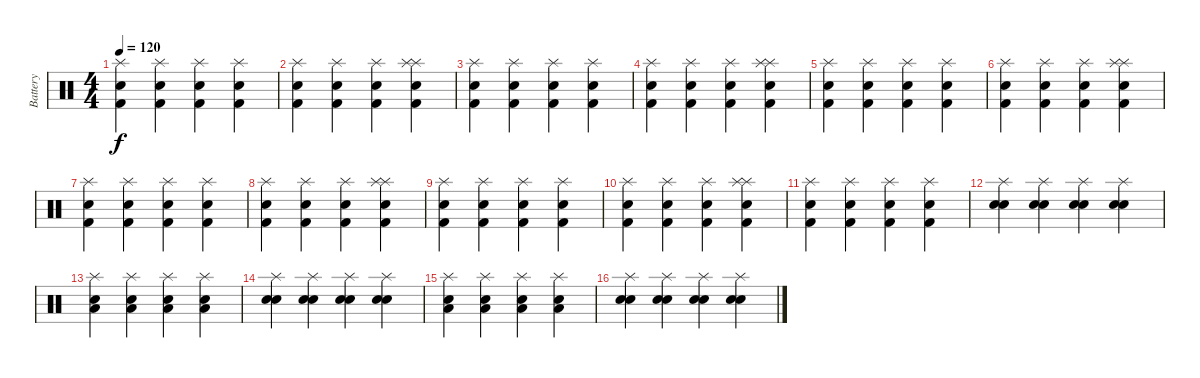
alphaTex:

\track ("Battery" "Battery") {instrument percussion}
\staff {score}
\articulation defaults
\ts (4 4)
\tempo 120
\clef neutral
\ks c
("Snare (hit) 2" "Kick (hit) 2" "Splash (hit)").4{dy f} ("Snare (hit) 2" "Kick (hit) 2" "Splash (hit)").4 ("Snare (hit) 2" "Kick (hit) 2" "Splash (hit)").4 ("Snare (hit) 2" "Kick (hit) 2" "Splash (hit)").4 |
("Kick (hit) 2" "Snare (hit) 2" "Splash (hit)").4 ("Kick (hit) 2" "Snare (hit) 2" "Splash (hit)").4 ("Kick (hit) 2" "Snare (hit) 2" "Splash (hit)").4 ("Kick (hit) 2" "Snare (hit) 2" "Splash (hit)" "Splash (hit)").4 |
("Snare (hit) 2" "Kick (hit) 2" "Splash (hit)").4 ("Snare (hit) 2" "Kick (hit) 2" "Splash (hit)").4 ("Snare (hit) 2" "Kick (hit) 2" "Splash (hit)").4 ("Snare (hit) 2" "Kick (hit) 2" "Splash (hit)").4 |
("Kick (hit) 2" "Snare (hit) 2" "Splash (hit)").4 ("Kick (hit) 2" "Snare (hit) 2" "Splash (hit)").4 ("Kick (hit) 2" "Snare (hit) 2" "Splash (hit)").4 ("Kick (hit) 2" "Snare (hit) 2" "Splash (hit)" "Splash (hit)").4 |
("Snare (hit) 2" "Kick (hit) 2" "Splash (hit)").4 ("Snare (hit) 2" "Kick (hit) 2" "Splash (hit)").4 ("Snare (hit) 2" "Kick (hit) 2" "Splash (hit)").4 ("Snare (hit) 2" "Kick (hit) 2" "Splash (hit)").4 |
("Kick (hit) 2" "Snare (hit) 2" "Splash (hit)").4 ("Kick (hit) 2" "Snare (hit) 2" "Splash (hit)").4 ("Kick (hit) 2" "Snare (hit) 2" "Splash (hit)").4 ("Kick (hit) 2" "Snare (hit) 2" "Splash (hit)" "Splash (hit)").4 |
("Snare (hit) 2" "Kick (hit) 2" "Splash (hit)").4 ("Snare (hit) 2" "Kick (hit) 2" "Splash (hit)").4 ("Snare (hit) 2" "Kick (hit) 2" "Splash (hit)").4 ("Snare (hit) 2" "Kick (hit) 2" "Splash (hit)").4 |
("Kick (hit) 2" "Snare (hit) 2" "Splash (hit)").4 ("Kick (hit) 2" "Snare (hit) 2" "Splash (hit)").4 ("Kick (hit) 2" "Snare (hit) 2" "Splash (hit)").4 ("Kick (hit) 2" "Snare (hit) 2" "Splash (hit)" "Splash (hit)").4 |
("Snare (hit) 2" "Kick (hit) 2" "Splash (hit)").4 ("Snare (hit) 2" "Kick (hit) 2" "Splash (hit)").4 ("Snare (hit) 2" "Kick (hit) 2" "Splash (hit)").4 ("Snare (hit) 2" "Kick (hit) 2" "Splash (hit)").4 |
("Kick (hit) 2" "Snare (hit) 2" "Splash (hit)").4 ("Kick (hit) 2" "Snare (hit) 2" "Splash (hit)").4 ("Kick (hit) 2" "Snare (hit) 2" "Splash (hit)").4 ("Kick (hit) 2" "Snare (hit) 2" "Splash (hit)" "Splash (hit)").4 |
("Snare (hit) 2" "Kick (hit) 2" "Splash (hit)").4 ("Snare (hit) 2" "Kick (hit) 2" "Splash (hit)").4 ("Snare (hit) 2" "Kick (hit) 2" "Splash (hit)").4 ("Snare (hit) 2" "Kick (hit) 2" "Splash (hit)").4 |
("Snare (hit) 2" "Electric Snare (hit)" "Splash (hit)").4 ("Snare (hit) 2" "Electric Snare (hit)" "Splash (hit)").4 ("Snare (hit) 2" "Electric Snare (hit)" "Splash (hit)").4 ("Snare (hit) 2" "Electric Snare (hit)" "Splash (hit)").4 |
("Snare (hit) 2" "Low Floor Tom (hit)" "Splash (hit)").4 ("Snare (hit) 2" "Low Floor Tom (hit)" "Splash (hit)").4 ("Snare (hit) 2" "Low Floor Tom (hit)" "Splash (hit)").4 ("Snare (hit) 2" "Low Floor Tom (hit)" "Splash (hit)").4 |
("Snare (hit) 2" "Electric Snare (hit)" "Splash (hit)").4 ("Snare (hit) 2" "Electric Snare (hit)" "Splash (hit)").4 ("Snare (hit) 2" "Electric Snare (hit)" "Splash (hit)").4 ("Snare (hit) 2" "Electric Snare (hit)" "Splash (hit)").4 |
("Snare (hit) 2" "Low Floor Tom (hit)" "Splash (hit)").4 ("Snare (hit) 2" "Low Floor Tom (hit)" "Splash (hit)").4 ("Snare (hit) 2" "Low Floor Tom (hit)" "Splash (hit)").4 ("Snare (hit) 2" "Low Floor Tom (hit)" "Splash (hit)").4 |
("Snare (hit) 2" "Electric Snare (hit)" "Splash (hit)").4 ("Snare (hit) 2" "Electric Snare (hit)" "Splash (hit)").4 ("Snare (hit) 2" "Electric Snare (hit)" "Splash (hit)").4 ("Snare (hit) 2" "Electric Snare (hit)" "Splash (hit)").4
